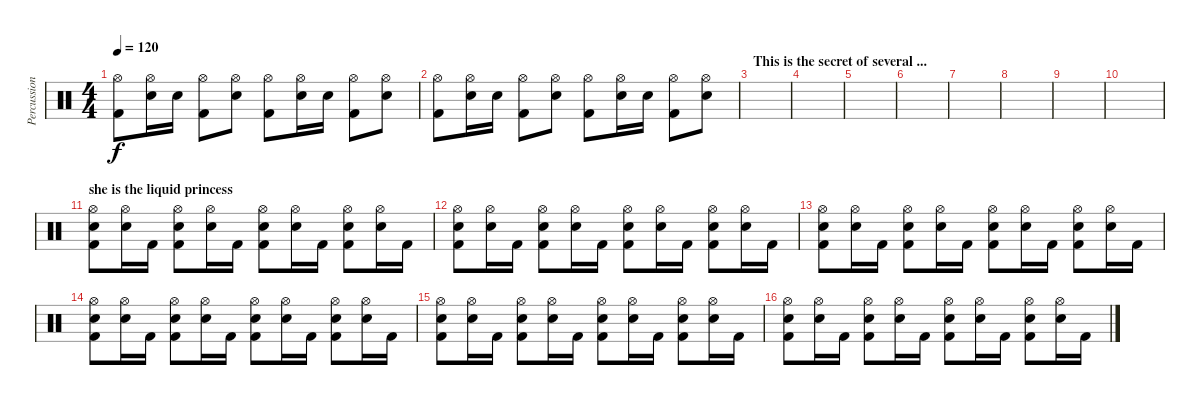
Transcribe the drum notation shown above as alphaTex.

\track ("Percussions" "Percussion") {instrument percussion}
\staff {score}
\articulation defaults
\ts (4 4)
\tempo 120
\clef neutral
\ks c
("Kick (hit) 2" "Hi-Hat (open)").8{dy f} ("Hi-Hat (open)" "Snare (hit) 2").16 "Snare (hit) 2".16 ("Kick (hit) 2" "Hi-Hat (open)").8 ("Hi-Hat (open)" "Snare (hit) 2").8 ("Kick (hit) 2" "Hi-Hat (open)").8 ("Hi-Hat (open)" "Snare (hit) 2").16 "Snare (hit) 2".16 ("Kick (hit) 2" "Hi-Hat (open)").8 ("Hi-Hat (open)" "Snare (hit) 2").8 |
("Kick (hit) 2" "Hi-Hat (open)").8 ("Hi-Hat (open)" "Snare (hit) 2").16 "Snare (hit) 2".16 ("Kick (hit) 2" "Hi-Hat (open)").8 ("Hi-Hat (open)" "Snare (hit) 2").8 ("Kick (hit) 2" "Hi-Hat (open)").8 ("Hi-Hat (open)" "Snare (hit) 2").16 "Snare (hit) 2".16 ("Kick (hit) 2" "Hi-Hat (open)").8 ("Hi-Hat (open)" "Snare (hit) 2").8 |
\section ("" "This is the secret of several ...")
|
|
|
|
|
|
|
|
\section ("" "she is the liquid princess")
("Kick (hit) 2" "Hi-Hat (open)" "Snare (hit) 2").8 ("Hi-Hat (open)" "Snare (hit) 2").16 "Kick (hit) 2".16 ("Kick (hit) 2" "Hi-Hat (open)" "Snare (hit) 2").8 ("Hi-Hat (open)" "Snare (hit) 2").16 "Kick (hit) 2".16 ("Kick (hit) 2" "Hi-Hat (open)" "Snare (hit) 2").8 ("Hi-Hat (open)" "Snare (hit) 2").16 "Kick (hit) 2".16 ("Kick (hit) 2" "Hi-Hat (open)" "Snare (hit) 2").8 ("Hi-Hat (open)" "Snare (hit) 2").16 "Kick (hit) 2".16 |
("Kick (hit) 2" "Hi-Hat (open)" "Snare (hit) 2").8 ("Hi-Hat (open)" "Snare (hit) 2").16 "Kick (hit) 2".16 ("Kick (hit) 2" "Hi-Hat (open)" "Snare (hit) 2").8 ("Hi-Hat (open)" "Snare (hit) 2").16 "Kick (hit) 2".16 ("Kick (hit) 2" "Hi-Hat (open)" "Snare (hit) 2").8 ("Hi-Hat (open)" "Snare (hit) 2").16 "Kick (hit) 2".16 ("Kick (hit) 2" "Hi-Hat (open)" "Snare (hit) 2").8 ("Hi-Hat (open)" "Snare (hit) 2").16 "Kick (hit) 2".16 |
("Kick (hit) 2" "Hi-Hat (open)" "Snare (hit) 2").8 ("Hi-Hat (open)" "Snare (hit) 2").16 "Kick (hit) 2".16 ("Kick (hit) 2" "Hi-Hat (open)" "Snare (hit) 2").8 ("Hi-Hat (open)" "Snare (hit) 2").16 "Kick (hit) 2".16 ("Kick (hit) 2" "Hi-Hat (open)" "Snare (hit) 2").8 ("Hi-Hat (open)" "Snare (hit) 2").16 "Kick (hit) 2".16 ("Kick (hit) 2" "Hi-Hat (open)" "Snare (hit) 2").8 ("Hi-Hat (open)" "Snare (hit) 2").16 "Kick (hit) 2".16 |
("Kick (hit) 2" "Hi-Hat (open)" "Snare (hit) 2").8 ("Hi-Hat (open)" "Snare (hit) 2").16 "Kick (hit) 2".16 ("Kick (hit) 2" "Hi-Hat (open)" "Snare (hit) 2").8 ("Hi-Hat (open)" "Snare (hit) 2").16 "Kick (hit) 2".16 ("Kick (hit) 2" "Hi-Hat (open)" "Snare (hit) 2").8 ("Hi-Hat (open)" "Snare (hit) 2").16 "Kick (hit) 2".16 ("Kick (hit) 2" "Hi-Hat (open)" "Snare (hit) 2").8 ("Hi-Hat (open)" "Snare (hit) 2").16 "Kick (hit) 2".16 |
("Kick (hit) 2" "Hi-Hat (open)" "Snare (hit) 2").8 ("Hi-Hat (open)" "Snare (hit) 2").16 "Kick (hit) 2".16 ("Kick (hit) 2" "Hi-Hat (open)" "Snare (hit) 2").8 ("Hi-Hat (open)" "Snare (hit) 2").16 "Kick (hit) 2".16 ("Kick (hit) 2" "Hi-Hat (open)" "Snare (hit) 2").8 ("Hi-Hat (open)" "Snare (hit) 2").16 "Kick (hit) 2".16 ("Kick (hit) 2" "Hi-Hat (open)" "Snare (hit) 2").8 ("Hi-Hat (open)" "Snare (hit) 2").16 "Kick (hit) 2".16 |
("Kick (hit) 2" "Hi-Hat (open)" "Snare (hit) 2").8 ("Hi-Hat (open)" "Snare (hit) 2").16 "Kick (hit) 2".16 ("Kick (hit) 2" "Hi-Hat (open)" "Snare (hit) 2").8 ("Hi-Hat (open)" "Snare (hit) 2").16 "Kick (hit) 2".16 ("Kick (hit) 2" "Hi-Hat (open)" "Snare (hit) 2").8 ("Hi-Hat (open)" "Snare (hit) 2").16 "Kick (hit) 2".16 ("Kick (hit) 2" "Hi-Hat (open)" "Snare (hit) 2").8 ("Hi-Hat (open)" "Snare (hit) 2").16 "Kick (hit) 2".16
